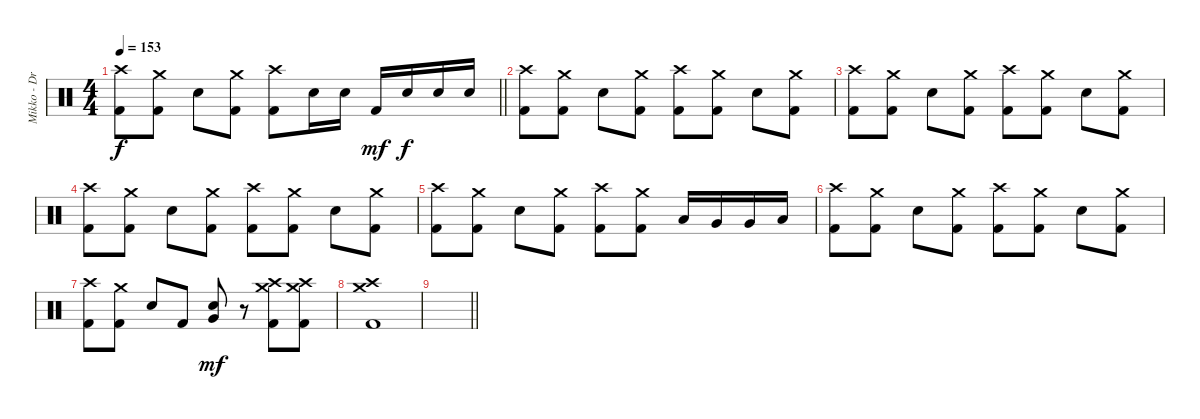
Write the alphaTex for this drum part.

\track ("Mikko - Drums" "Mikko - Dr") {instrument percussion}
\staff {score}
\articulation defaults
\ts (4 4)
\tempo 153
\clef neutral
\barLineRight lightlight
\ks c
("Crash high (hit)" "Kick (hit) 2").8{dy f} ("Crash medium (hit)" "Kick (hit) 2").8 "Snare (hit) 2".8 ("Crash medium (hit)" "Kick (hit) 2").8 ("Crash high (hit)" "Kick (hit) 2").8 "Snare (hit) 2".16 "Snare (hit) 2".16 "Kick (hit) 2".16{dy mf} "Snare (hit) 2".16{dy f} "Snare (hit) 2".16 "Snare (hit) 2".16 |
("Crash high (hit)" "Kick (hit) 2").8 ("Crash medium (hit)" "Kick (hit) 2").8 "Snare (hit) 2".8 ("Crash medium (hit)" "Kick (hit) 2").8 ("Crash high (hit)" "Kick (hit) 2").8 ("Crash medium (hit)" "Kick (hit) 2").8 "Snare (hit) 2".8 ("Crash medium (hit)" "Kick (hit) 2").8 |
("Crash high (hit)" "Kick (hit) 2").8 ("Crash medium (hit)" "Kick (hit) 2").8 "Snare (hit) 2".8 ("Crash medium (hit)" "Kick (hit) 2").8 ("Crash high (hit)" "Kick (hit) 2").8 ("Crash medium (hit)" "Kick (hit) 2").8 "Snare (hit) 2".8 ("Crash medium (hit)" "Kick (hit) 2").8 |
("Crash high (hit)" "Kick (hit) 2").8 ("Crash medium (hit)" "Kick (hit) 2").8 "Snare (hit) 2".8 ("Crash medium (hit)" "Kick (hit) 2").8 ("Crash high (hit)" "Kick (hit) 2").8 ("Crash medium (hit)" "Kick (hit) 2").8 "Snare (hit) 2".8 ("Crash medium (hit)" "Kick (hit) 2").8 |
("Crash high (hit)" "Kick (hit) 2").8 ("Crash medium (hit)" "Kick (hit) 2").8 "Snare (hit) 2".8 ("Crash medium (hit)" "Kick (hit) 2").8 ("Crash high (hit)" "Kick (hit) 2").8 ("Crash medium (hit)" "Kick (hit) 2").8 "Low Tom (hit)".16 "Very Low Tom (hit)".16 "Very Low Tom (hit)".16 "Low Tom (hit)".16 |
("Crash high (hit)" "Kick (hit) 2").8 ("Crash medium (hit)" "Kick (hit) 2").8 "Snare (hit) 2".8 ("Crash medium (hit)" "Kick (hit) 2").8 ("Crash high (hit)" "Kick (hit) 2").8 ("Crash medium (hit)" "Kick (hit) 2").8 "Snare (hit) 2".8 ("Crash medium (hit)" "Kick (hit) 2").8 |
("Crash high (hit)" "Kick (hit) 2").8 ("Crash medium (hit)" "Kick (hit) 2").8 "Snare (hit) 2".8 "Kick (hit) 2".8 ("Snare (hit) 2" "Very Low Tom (hit)").8{dy mf} r.8 ("Crash medium (hit)" "Crash high (hit)" "Kick (hit) 2").8 ("Crash medium (hit)" "Crash high (hit)" "Kick (hit) 2").8 |
("Crash medium (hit)" "Crash high (hit)" "Kick (hit) 2").1 |
\barLineRight lightlight
